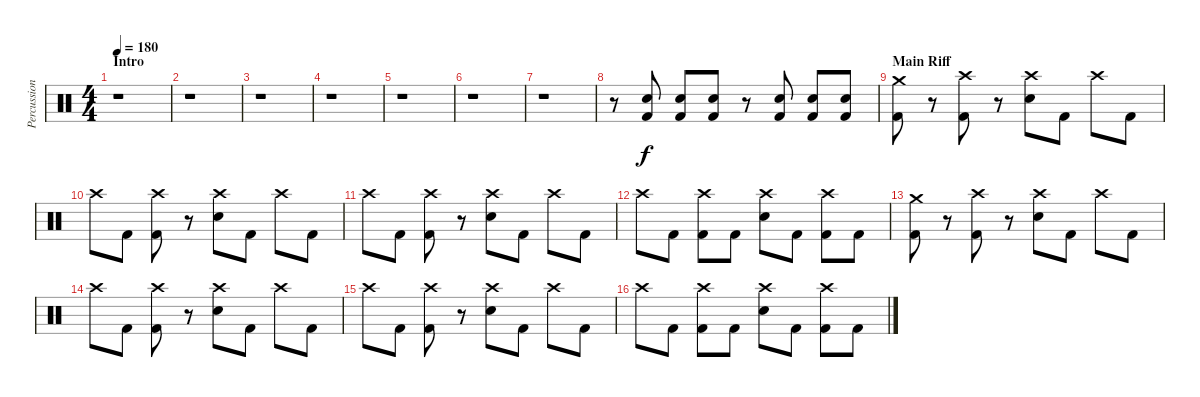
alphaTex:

\track ("Percussion" "Percussion") {instrument percussion}
\staff {score}
\articulation defaults
\ts (4 4)
\section ("" "Intro")
\tempo 180
\clef neutral
\ks c
r.1{dy f} |
r.1 |
r.1 |
r.1 |
r.1 |
r.1 |
r.1 |
r.8 ("Electric Snare (hit)" "Kick (hit) 2").8 ("Electric Snare (hit)" "Kick (hit) 2").8 ("Electric Snare (hit)" "Kick (hit) 2").8 r.8 ("Electric Snare (hit)" "Kick (hit) 2").8 ("Electric Snare (hit)" "Kick (hit) 2").8 ("Electric Snare (hit)" "Kick (hit) 2").8 |
\section ("" "Main Riff")
("Crash medium (hit)" "Kick (hit) 2").8 r.8 ("Crash high (hit)" "Kick (hit) 2").8 r.8 ("Crash high (hit)" "Electric Snare (hit)").8 "Kick (hit) 2".8 "Crash high (hit)".8 "Kick (hit) 2".8 |
"Crash high (hit)".8 "Kick (hit) 2".8 ("Crash high (hit)" "Kick (hit) 2").8 r.8 ("Crash high (hit)" "Electric Snare (hit)").8 "Kick (hit) 2".8 "Crash high (hit)".8 "Kick (hit) 2".8 |
"Crash high (hit)".8 "Kick (hit) 2".8 ("Crash high (hit)" "Kick (hit) 2").8 r.8 ("Crash high (hit)" "Electric Snare (hit)").8 "Kick (hit) 2".8 "Crash high (hit)".8 "Kick (hit) 2".8 |
"Crash high (hit)".8 "Kick (hit) 2".8 ("Crash high (hit)" "Kick (hit) 2").8 "Kick (hit) 2".8 ("Crash high (hit)" "Electric Snare (hit)").8 "Kick (hit) 2".8 ("Crash high (hit)" "Kick (hit) 2").8 "Kick (hit) 2".8 |
("Crash medium (hit)" "Kick (hit) 2").8 r.8 ("Crash high (hit)" "Kick (hit) 2").8 r.8 ("Crash high (hit)" "Electric Snare (hit)").8 "Kick (hit) 2".8 "Crash high (hit)".8 "Kick (hit) 2".8 |
"Crash high (hit)".8 "Kick (hit) 2".8 ("Crash high (hit)" "Kick (hit) 2").8 r.8 ("Crash high (hit)" "Electric Snare (hit)").8 "Kick (hit) 2".8 "Crash high (hit)".8 "Kick (hit) 2".8 |
"Crash high (hit)".8 "Kick (hit) 2".8 ("Crash high (hit)" "Kick (hit) 2").8 r.8 ("Crash high (hit)" "Electric Snare (hit)").8 "Kick (hit) 2".8 "Crash high (hit)".8 "Kick (hit) 2".8 |
"Crash high (hit)".8 "Kick (hit) 2".8 ("Crash high (hit)" "Kick (hit) 2").8 "Kick (hit) 2".8 ("Crash high (hit)" "Electric Snare (hit)").8 "Kick (hit) 2".8 ("Crash high (hit)" "Kick (hit) 2").8 "Kick (hit) 2".8
